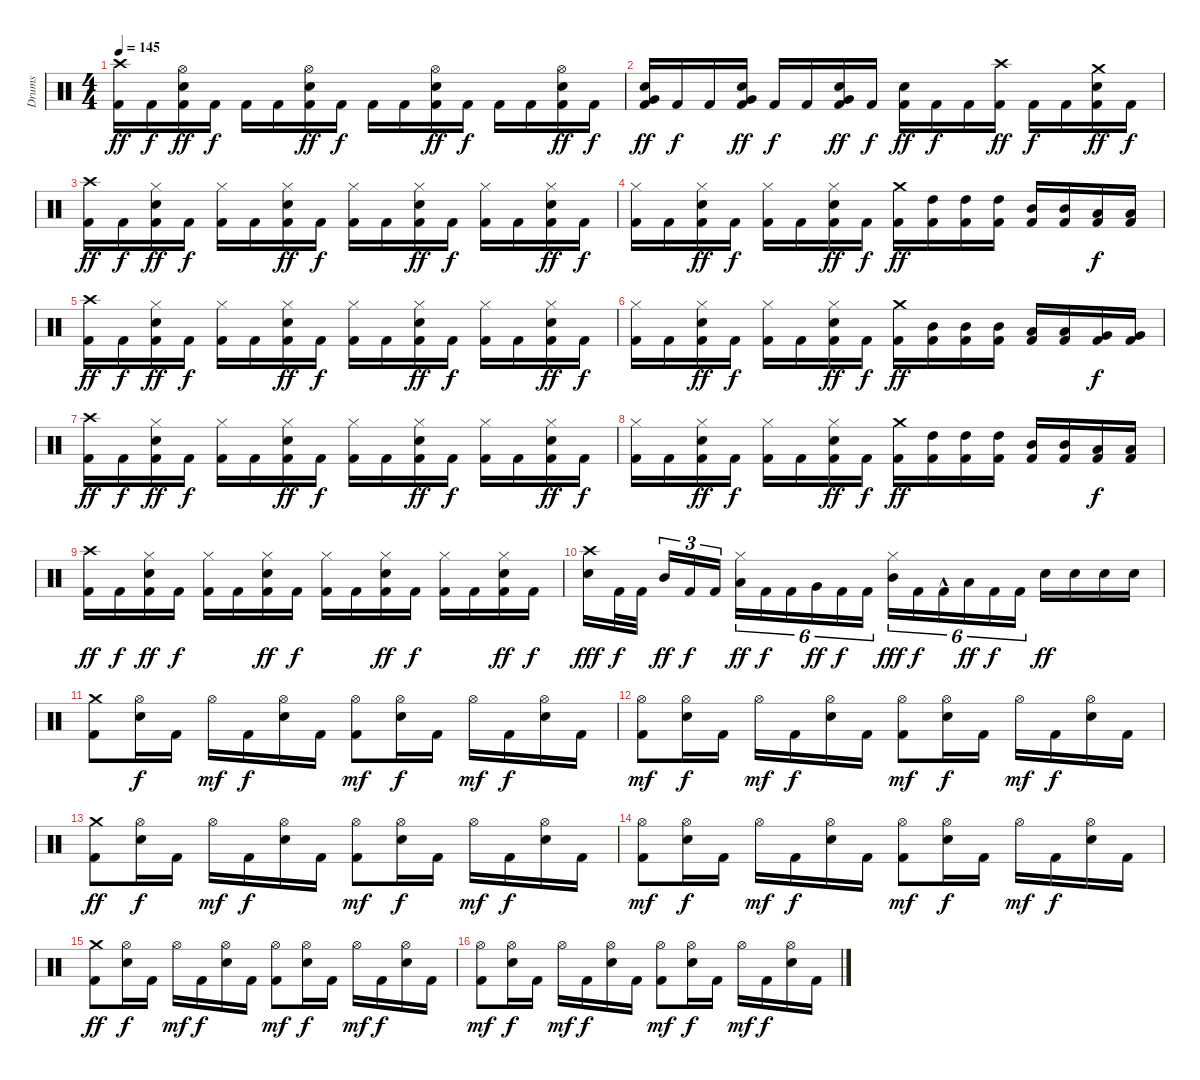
\track ("Drums" "Drums") {instrument percussion}
\staff {score}
\articulation defaults
\ts (4 4)
\tempo 145
\clef neutral
\ks c
("Crash high (hit)" "Kick (hit) 2").16{dy ff} "Kick (hit) 2".16{dy f} ("Snare (hit) 2" "Hi-Hat (open)" "Kick (hit) 2").16{dy ff} "Kick (hit) 2".16{dy f} "Kick (hit) 2".16 "Kick (hit) 2".16 ("Snare (hit) 2" "Hi-Hat (open)" "Kick (hit) 2").16{dy ff} "Kick (hit) 2".16{dy f} "Kick (hit) 2".16 "Kick (hit) 2".16 ("Hi-Hat (open)" "Snare (hit) 2" "Kick (hit) 2").16{dy ff} "Kick (hit) 2".16{dy f} "Kick (hit) 2".16 "Kick (hit) 2".16 ("Hi-Hat (open)" "Snare (hit) 2" "Kick (hit) 2").16{dy ff} "Kick (hit) 2".16{dy f} |
("Very Low Tom (hit)" "Snare (hit) 2" "Kick (hit) 2").16{dy ff} "Kick (hit) 2".16{dy f} "Kick (hit) 2".16 ("Very Low Tom (hit)" "Snare (hit) 2" "Kick (hit) 2").16{dy ff} "Kick (hit) 2".16{dy f} "Kick (hit) 2".16 ("Very Low Tom (hit)" "Snare (hit) 2" "Kick (hit) 2").16{dy ff} "Kick (hit) 2".16{dy f} ("Snare (hit) 2" "Kick (hit) 2").16{dy ff} "Kick (hit) 2".16{dy f} "Kick (hit) 2".16 ("Crash high (hit)" "Kick (hit) 2").16{dy ff} "Kick (hit) 2".16{dy f} "Kick (hit) 2".16 ("Crash medium (hit)" "Snare (hit) 2" "Kick (hit) 2").16{dy ff} "Kick (hit) 2".16{dy f} |
("Kick (hit) 2" "Crash high (hit)").16{dy ff} "Kick (hit) 2".16{dy f} ("Kick (hit) 2" "Snare (hit) 2" "Hi-Hat (closed)").16{dy ff} "Kick (hit) 2".16{dy f} ("Kick (hit) 2" "Hi-Hat (closed)").16 "Kick (hit) 2".16 ("Kick (hit) 2" "Snare (hit) 2" "Hi-Hat (closed)").16{dy ff} "Kick (hit) 2".16{dy f} ("Kick (hit) 2" "Hi-Hat (closed)").16 "Kick (hit) 2".16 ("Kick (hit) 2" "Snare (hit) 2" "Hi-Hat (closed)").16{dy ff} "Kick (hit) 2".16{dy f} ("Kick (hit) 2" "Hi-Hat (closed)").16 "Kick (hit) 2".16 ("Kick (hit) 2" "Snare (hit) 2" "Hi-Hat (closed)").16{dy ff} "Kick (hit) 2".16{dy f} |
("Hi-Hat (closed)" "Kick (hit) 2").16 "Kick (hit) 2".16 ("Snare (hit) 2" "Hi-Hat (closed)" "Kick (hit) 2").16{dy ff} "Kick (hit) 2".16{dy f} ("Hi-Hat (closed)" "Kick (hit) 2").16 "Kick (hit) 2".16 ("Snare (hit) 2" "Hi-Hat (closed)" "Kick (hit) 2").16{dy ff} "Kick (hit) 2".16{dy f} ("Crash medium (hit)" "Kick (hit) 2").16{dy ff} ("High Tom (hit)" "Kick (hit) 2").16 ("High Tom (hit)" "Kick (hit) 2").16 ("High Tom (hit)" "Kick (hit) 2").16 ("Mid Tom (hit)" "Kick (hit) 2").16 ("Mid Tom (hit)" "Kick (hit) 2").16 ("Low Tom (hit)" "Kick (hit) 2").16{dy f} ("Low Tom (hit)" "Kick (hit) 2").16 |
("Crash high (hit)" "Kick (hit) 2").16{dy ff} "Kick (hit) 2".16{dy f} ("Snare (hit) 2" "Hi-Hat (closed)" "Kick (hit) 2").16{dy ff} "Kick (hit) 2".16{dy f} ("Hi-Hat (closed)" "Kick (hit) 2").16 "Kick (hit) 2".16 ("Snare (hit) 2" "Hi-Hat (closed)" "Kick (hit) 2").16{dy ff} "Kick (hit) 2".16{dy f} ("Hi-Hat (closed)" "Kick (hit) 2").16 "Kick (hit) 2".16 ("Snare (hit) 2" "Hi-Hat (closed)" "Kick (hit) 2").16{dy ff} "Kick (hit) 2".16{dy f} ("Hi-Hat (closed)" "Kick (hit) 2").16 "Kick (hit) 2".16 ("Snare (hit) 2" "Hi-Hat (closed)" "Kick (hit) 2").16{dy ff} "Kick (hit) 2".16{dy f} |
("Hi-Hat (closed)" "Kick (hit) 2").16 "Kick (hit) 2".16 ("Snare (hit) 2" "Hi-Hat (closed)" "Kick (hit) 2").16{dy ff} "Kick (hit) 2".16{dy f} ("Hi-Hat (closed)" "Kick (hit) 2").16 "Kick (hit) 2".16 ("Snare (hit) 2" "Hi-Hat (closed)" "Kick (hit) 2").16{dy ff} "Kick (hit) 2".16{dy f} ("Crash medium (hit)" "Kick (hit) 2").16{dy ff} ("Mid Tom (hit)" "Kick (hit) 2").16 ("Mid Tom (hit)" "Kick (hit) 2").16 ("Mid Tom (hit)" "Kick (hit) 2").16 ("Low Tom (hit)" "Kick (hit) 2").16 ("Low Tom (hit)" "Kick (hit) 2").16 ("Very Low Tom (hit)" "Kick (hit) 2").16{dy f} ("Very Low Tom (hit)" "Kick (hit) 2").16 |
("Crash high (hit)" "Kick (hit) 2").16{dy ff} "Kick (hit) 2".16{dy f} ("Snare (hit) 2" "Hi-Hat (closed)" "Kick (hit) 2").16{dy ff} "Kick (hit) 2".16{dy f} ("Hi-Hat (closed)" "Kick (hit) 2").16 "Kick (hit) 2".16 ("Snare (hit) 2" "Hi-Hat (closed)" "Kick (hit) 2").16{dy ff} "Kick (hit) 2".16{dy f} ("Hi-Hat (closed)" "Kick (hit) 2").16 "Kick (hit) 2".16 ("Snare (hit) 2" "Hi-Hat (closed)" "Kick (hit) 2").16{dy ff} "Kick (hit) 2".16{dy f} ("Hi-Hat (closed)" "Kick (hit) 2").16 "Kick (hit) 2".16 ("Snare (hit) 2" "Hi-Hat (closed)" "Kick (hit) 2").16{dy ff} "Kick (hit) 2".16{dy f} |
("Hi-Hat (closed)" "Kick (hit) 2").16 "Kick (hit) 2".16 ("Snare (hit) 2" "Hi-Hat (closed)" "Kick (hit) 2").16{dy ff} "Kick (hit) 2".16{dy f} ("Hi-Hat (closed)" "Kick (hit) 2").16 "Kick (hit) 2".16 ("Snare (hit) 2" "Hi-Hat (closed)" "Kick (hit) 2").16{dy ff} "Kick (hit) 2".16{dy f} ("Crash medium (hit)" "Kick (hit) 2").16{dy ff} ("High Tom (hit)" "Kick (hit) 2").16 ("High Tom (hit)" "Kick (hit) 2").16 ("High Tom (hit)" "Kick (hit) 2").16 ("Mid Tom (hit)" "Kick (hit) 2").16 ("Mid Tom (hit)" "Kick (hit) 2").16 ("Low Tom (hit)" "Kick (hit) 2").16{dy f} ("Low Tom (hit)" "Kick (hit) 2").16 |
("Crash high (hit)" "Kick (hit) 2").16{dy ff} "Kick (hit) 2".16{dy f} ("Snare (hit) 2" "Hi-Hat (closed)" "Kick (hit) 2").16{dy ff} "Kick (hit) 2".16{dy f} ("Hi-Hat (closed)" "Kick (hit) 2").16 "Kick (hit) 2".16 ("Snare (hit) 2" "Hi-Hat (closed)" "Kick (hit) 2").16{dy ff} "Kick (hit) 2".16{dy f} ("Hi-Hat (closed)" "Kick (hit) 2").16 "Kick (hit) 2".16 ("Snare (hit) 2" "Hi-Hat (closed)" "Kick (hit) 2").16{dy ff} "Kick (hit) 2".16{dy f} ("Hi-Hat (closed)" "Kick (hit) 2").16 "Kick (hit) 2".16 ("Snare (hit) 2" "Hi-Hat (closed)" "Kick (hit) 2").16{dy ff} "Kick (hit) 2".16{dy f} |
("Snare (hit) 2" "Crash high (hit)").16{dy fff} "Kick (hit) 2".32{dy f} "Kick (hit) 2".32 "Mid Tom (hit)".16{tu (3 2) dy ff} "Kick (hit) 2".16{tu (3 2) dy f} "Kick (hit) 2".16{tu (3 2)} ("Hi-Hat (closed)" "Low Tom (hit)").16{tu (6 4) dy ff} "Kick (hit) 2".16{tu (6 4) dy f} "Kick (hit) 2".16{tu (6 4)} "Very Low Tom (hit)".16{tu (6 4) dy ff} "Kick (hit) 2".16{tu (6 4) dy f} "Kick (hit) 2".16{tu (6 4)} ("Mid Tom (hit)" "Hi-Hat (closed)").16{tu (6 4) dy fff} "Kick (hit) 2".16{tu (6 4) dy f} "Kick (hit) 2"{hac}.16{tu (6 4)} "Low Tom (hit)".16{tu (6 4) dy ff} "Kick (hit) 2".16{tu (6 4) dy f} "Kick (hit) 2".16{tu (6 4)} "Snare (hit) 2".16{dy ff} "Snare (hit) 2".16 "Snare (hit) 2".16 "Snare (hit) 2".16 |
("Crash medium (hit)" "Kick (hit) 2").8 ("Snare (hit) 2" "Hi-Hat (open)").16{dy f} "Kick (hit) 2".16 "Hi-Hat (open)".16{dy mf} "Kick (hit) 2".16{dy f} ("Snare (hit) 2" "Hi-Hat (open)").16 "Kick (hit) 2".16 ("Hi-Hat (open)" "Kick (hit) 2").8{dy mf} ("Snare (hit) 2" "Hi-Hat (open)").16{dy f} "Kick (hit) 2".16 "Hi-Hat (open)".16{dy mf} "Kick (hit) 2".16{dy f} ("Snare (hit) 2" "Hi-Hat (open)").16 "Kick (hit) 2".16 |
("Hi-Hat (open)" "Kick (hit) 2").8{dy mf} ("Snare (hit) 2" "Hi-Hat (open)").16{dy f} "Kick (hit) 2".16 "Hi-Hat (open)".16{dy mf} "Kick (hit) 2".16{dy f} ("Snare (hit) 2" "Hi-Hat (open)").16 "Kick (hit) 2".16 ("Hi-Hat (open)" "Kick (hit) 2").8{dy mf} ("Snare (hit) 2" "Hi-Hat (open)").16{dy f} "Kick (hit) 2".16 "Hi-Hat (open)".16{dy mf} "Kick (hit) 2".16{dy f} ("Snare (hit) 2" "Hi-Hat (open)").16 "Kick (hit) 2".16 |
("Kick (hit) 2" "Crash medium (hit)").8{dy ff} ("Snare (hit) 2" "Hi-Hat (open)").16{dy f} "Kick (hit) 2".16 "Hi-Hat (open)".16{dy mf} "Kick (hit) 2".16{dy f} ("Snare (hit) 2" "Hi-Hat (open)").16 "Kick (hit) 2".16 ("Kick (hit) 2" "Hi-Hat (open)").8{dy mf} ("Snare (hit) 2" "Hi-Hat (open)").16{dy f} "Kick (hit) 2".16 "Hi-Hat (open)".16{dy mf} "Kick (hit) 2".16{dy f} ("Snare (hit) 2" "Hi-Hat (open)").16 "Kick (hit) 2".16 |
("Kick (hit) 2" "Hi-Hat (open)").8{dy mf} ("Snare (hit) 2" "Hi-Hat (open)").16{dy f} "Kick (hit) 2".16 "Hi-Hat (open)".16{dy mf} "Kick (hit) 2".16{dy f} ("Snare (hit) 2" "Hi-Hat (open)").16 "Kick (hit) 2".16 ("Kick (hit) 2" "Hi-Hat (open)").8{dy mf} ("Snare (hit) 2" "Hi-Hat (open)").16{dy f} "Kick (hit) 2".16 "Hi-Hat (open)".16{dy mf} "Kick (hit) 2".16{dy f} ("Snare (hit) 2" "Hi-Hat (open)").16 "Kick (hit) 2".16 |
("Crash medium (hit)" "Kick (hit) 2").8{dy ff} ("Snare (hit) 2" "Hi-Hat (open)").16{dy f} "Kick (hit) 2".16 "Hi-Hat (open)".16{dy mf} "Kick (hit) 2".16{dy f} ("Snare (hit) 2" "Hi-Hat (open)").16 "Kick (hit) 2".16 ("Hi-Hat (open)" "Kick (hit) 2").8{dy mf} ("Snare (hit) 2" "Hi-Hat (open)").16{dy f} "Kick (hit) 2".16 "Hi-Hat (open)".16{dy mf} "Kick (hit) 2".16{dy f} ("Snare (hit) 2" "Hi-Hat (open)").16 "Kick (hit) 2".16 |
("Hi-Hat (open)" "Kick (hit) 2").8{dy mf} ("Snare (hit) 2" "Hi-Hat (open)").16{dy f} "Kick (hit) 2".16 "Hi-Hat (open)".16{dy mf} "Kick (hit) 2".16{dy f} ("Snare (hit) 2" "Hi-Hat (open)").16 "Kick (hit) 2".16 ("Hi-Hat (open)" "Kick (hit) 2").8{dy mf} ("Snare (hit) 2" "Hi-Hat (open)").16{dy f} "Kick (hit) 2".16 "Hi-Hat (open)".16{dy mf} "Kick (hit) 2".16{dy f} ("Snare (hit) 2" "Hi-Hat (open)").16 "Kick (hit) 2".16
